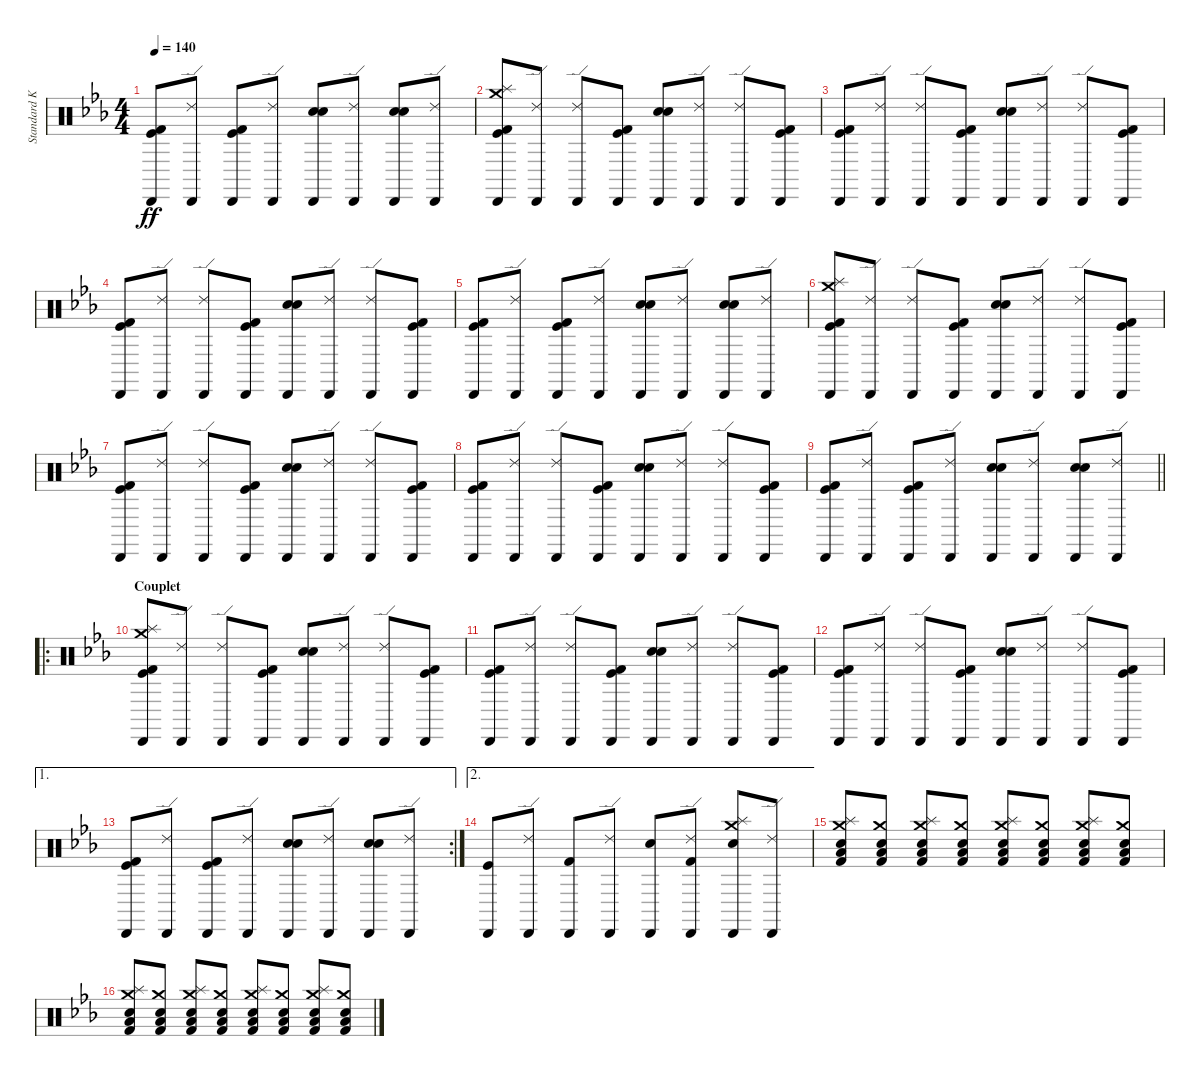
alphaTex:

\track ("Standard Kit" "Standard K") {instrument percussion}
\staff {score}
\articulation defaults
\ts (4 4)
\tempo 140
\clef neutral
\ks eb
("Kick (hit)" "Kick (hit) 2" "Cabasa (hit)").8{dy ff} ("Cabasa (hit)" "Ride (edge) 2").8 ("Kick (hit)" "Kick (hit) 2" "Cabasa (hit)").8 ("Cabasa (hit)" "Ride (edge) 2").8 ("Cabasa (hit)" "Electric Snare (hit)" "Snare (hit) 2").8 ("Cabasa (hit)" "Ride (edge) 2").8 ("Cabasa (hit)" "Electric Snare (hit)" "Snare (hit) 2").8 ("Cabasa (hit)" "Ride (edge) 2").8 |
("Kick (hit)" "Kick (hit) 2" "Cabasa (hit)" "Crash medium (hit)" "Splash (hit)").8 ("Cabasa (hit)" "Ride (edge) 2").8 ("Cabasa (hit)" "Ride (edge) 2").8 ("Kick (hit)" "Kick (hit) 2" "Cabasa (hit)").8 ("Cabasa (hit)" "Electric Snare (hit)" "Snare (hit) 2").8 ("Cabasa (hit)" "Ride (edge) 2").8 ("Cabasa (hit)" "Ride (edge) 2").8 ("Kick (hit)" "Kick (hit) 2" "Cabasa (hit)").8 |
("Kick (hit)" "Kick (hit) 2" "Cabasa (hit)").8 ("Cabasa (hit)" "Ride (edge) 2").8 ("Cabasa (hit)" "Ride (edge) 2").8 ("Kick (hit)" "Kick (hit) 2" "Cabasa (hit)").8 ("Cabasa (hit)" "Electric Snare (hit)" "Snare (hit) 2").8 ("Cabasa (hit)" "Ride (edge) 2").8 ("Cabasa (hit)" "Ride (edge) 2").8 ("Kick (hit)" "Kick (hit) 2" "Cabasa (hit)").8 |
("Kick (hit)" "Kick (hit) 2" "Cabasa (hit)").8 ("Cabasa (hit)" "Ride (edge) 2").8 ("Cabasa (hit)" "Ride (edge) 2").8 ("Kick (hit)" "Kick (hit) 2" "Cabasa (hit)").8 ("Cabasa (hit)" "Electric Snare (hit)" "Snare (hit) 2").8 ("Cabasa (hit)" "Ride (edge) 2").8 ("Cabasa (hit)" "Ride (edge) 2").8 ("Kick (hit)" "Kick (hit) 2" "Cabasa (hit)").8 |
("Kick (hit)" "Kick (hit) 2" "Cabasa (hit)").8 ("Cabasa (hit)" "Ride (edge) 2").8 ("Kick (hit)" "Kick (hit) 2" "Cabasa (hit)").8 ("Cabasa (hit)" "Ride (edge) 2").8 ("Cabasa (hit)" "Electric Snare (hit)" "Snare (hit) 2").8 ("Cabasa (hit)" "Ride (edge) 2").8 ("Cabasa (hit)" "Electric Snare (hit)" "Snare (hit) 2").8 ("Cabasa (hit)" "Ride (edge) 2").8 |
("Kick (hit)" "Kick (hit) 2" "Cabasa (hit)" "Crash medium (hit)" "Splash (hit)").8 ("Cabasa (hit)" "Ride (edge) 2").8 ("Cabasa (hit)" "Ride (edge) 2").8 ("Kick (hit)" "Kick (hit) 2" "Cabasa (hit)").8 ("Cabasa (hit)" "Electric Snare (hit)" "Snare (hit) 2").8 ("Cabasa (hit)" "Ride (edge) 2").8 ("Cabasa (hit)" "Ride (edge) 2").8 ("Kick (hit)" "Kick (hit) 2" "Cabasa (hit)").8 |
("Kick (hit)" "Kick (hit) 2" "Cabasa (hit)").8 ("Cabasa (hit)" "Ride (edge) 2").8 ("Cabasa (hit)" "Ride (edge) 2").8 ("Kick (hit)" "Kick (hit) 2" "Cabasa (hit)").8 ("Cabasa (hit)" "Electric Snare (hit)" "Snare (hit) 2").8 ("Cabasa (hit)" "Ride (edge) 2").8 ("Cabasa (hit)" "Ride (edge) 2").8 ("Kick (hit)" "Kick (hit) 2" "Cabasa (hit)").8 |
("Kick (hit)" "Kick (hit) 2" "Cabasa (hit)").8 ("Cabasa (hit)" "Ride (edge) 2").8 ("Cabasa (hit)" "Ride (edge) 2").8 ("Kick (hit)" "Kick (hit) 2" "Cabasa (hit)").8 ("Cabasa (hit)" "Electric Snare (hit)" "Snare (hit) 2").8 ("Cabasa (hit)" "Ride (edge) 2").8 ("Cabasa (hit)" "Ride (edge) 2").8 ("Kick (hit)" "Kick (hit) 2" "Cabasa (hit)").8 |
\barLineRight lightlight
("Kick (hit)" "Kick (hit) 2" "Cabasa (hit)").8 ("Cabasa (hit)" "Ride (edge) 2").8 ("Kick (hit)" "Kick (hit) 2" "Cabasa (hit)").8 ("Cabasa (hit)" "Ride (edge) 2").8 ("Cabasa (hit)" "Electric Snare (hit)" "Snare (hit) 2").8 ("Cabasa (hit)" "Ride (edge) 2").8 ("Cabasa (hit)" "Electric Snare (hit)" "Snare (hit) 2").8 ("Cabasa (hit)" "Ride (edge) 2").8 |
\ro
\section ("" "Couplet")
("Kick (hit)" "Kick (hit) 2" "Cabasa (hit)" "Crash medium (hit)" "Splash (hit)").8 ("Cabasa (hit)" "Ride (edge) 2").8 ("Cabasa (hit)" "Ride (edge) 2").8 ("Kick (hit)" "Kick (hit) 2" "Cabasa (hit)").8 ("Cabasa (hit)" "Electric Snare (hit)" "Snare (hit) 2").8 ("Cabasa (hit)" "Ride (edge) 2").8 ("Cabasa (hit)" "Ride (edge) 2").8 ("Kick (hit)" "Kick (hit) 2" "Cabasa (hit)").8 |
("Kick (hit)" "Kick (hit) 2" "Cabasa (hit)").8 ("Cabasa (hit)" "Ride (edge) 2").8 ("Cabasa (hit)" "Ride (edge) 2").8 ("Kick (hit)" "Kick (hit) 2" "Cabasa (hit)").8 ("Cabasa (hit)" "Electric Snare (hit)" "Snare (hit) 2").8 ("Cabasa (hit)" "Ride (edge) 2").8 ("Cabasa (hit)" "Ride (edge) 2").8 ("Kick (hit)" "Kick (hit) 2" "Cabasa (hit)").8 |
("Kick (hit)" "Kick (hit) 2" "Cabasa (hit)").8 ("Cabasa (hit)" "Ride (edge) 2").8 ("Cabasa (hit)" "Ride (edge) 2").8 ("Kick (hit)" "Kick (hit) 2" "Cabasa (hit)").8 ("Cabasa (hit)" "Electric Snare (hit)" "Snare (hit) 2").8 ("Cabasa (hit)" "Ride (edge) 2").8 ("Cabasa (hit)" "Ride (edge) 2").8 ("Kick (hit)" "Kick (hit) 2" "Cabasa (hit)").8 |
\ae 1
\rc 2
("Kick (hit)" "Kick (hit) 2" "Cabasa (hit)").8 ("Cabasa (hit)" "Ride (edge) 2").8 ("Kick (hit)" "Kick (hit) 2" "Cabasa (hit)").8 ("Cabasa (hit)" "Ride (edge) 2").8 ("Cabasa (hit)" "Electric Snare (hit)" "Snare (hit) 2").8 ("Cabasa (hit)" "Ride (edge) 2").8 ("Cabasa (hit)" "Electric Snare (hit)" "Snare (hit) 2").8 ("Cabasa (hit)" "Ride (edge) 2").8 |
\ae 2
("Kick (hit)" "Cabasa (hit)").8 ("Cabasa (hit)" "Ride (edge) 2").8 ("Kick (hit) 2" "Cabasa (hit)").8 ("Cabasa (hit)" "Ride (edge) 2").8 ("Cabasa (hit)" "Snare (hit) 2").8 ("Kick (hit) 2" "Cabasa (hit)" "Ride (edge) 2").8 ("Cabasa (hit)" "Snare (hit) 2" "Crash medium (hit)" "Splash (hit)").8 ("Cabasa (hit)" "Ride (edge) 2").8 |
("Kick (hit) 2" "Low Floor Tom (hit)" "Electric Snare (hit)" "Splash (hit)" "Crash medium (hit)").8 ("Kick (hit) 2" "Low Floor Tom (hit)" "Electric Snare (hit)" "Crash medium (hit)").8 ("Kick (hit) 2" "Low Floor Tom (hit)" "Electric Snare (hit)" "Splash (hit)" "Crash medium (hit)").8 ("Kick (hit) 2" "Low Floor Tom (hit)" "Electric Snare (hit)" "Crash medium (hit)").8 ("Kick (hit) 2" "Low Floor Tom (hit)" "Electric Snare (hit)" "Splash (hit)" "Crash medium (hit)").8 ("Kick (hit) 2" "Low Floor Tom (hit)" "Electric Snare (hit)" "Crash medium (hit)").8 ("Kick (hit) 2" "Low Floor Tom (hit)" "Electric Snare (hit)" "Splash (hit)" "Crash medium (hit)").8 ("Kick (hit) 2" "Low Floor Tom (hit)" "Electric Snare (hit)" "Crash medium (hit)").8 |
("Kick (hit) 2" "Low Floor Tom (hit)" "Electric Snare (hit)" "Splash (hit)" "Crash medium (hit)").8 ("Kick (hit) 2" "Low Floor Tom (hit)" "Electric Snare (hit)" "Crash medium (hit)").8 ("Kick (hit) 2" "Low Floor Tom (hit)" "Electric Snare (hit)" "Splash (hit)" "Crash medium (hit)").8 ("Kick (hit) 2" "Low Floor Tom (hit)" "Electric Snare (hit)" "Crash medium (hit)").8 ("Kick (hit) 2" "Low Floor Tom (hit)" "Electric Snare (hit)" "Splash (hit)" "Crash medium (hit)").8 ("Kick (hit) 2" "Low Floor Tom (hit)" "Electric Snare (hit)" "Crash medium (hit)").8 ("Kick (hit) 2" "Low Floor Tom (hit)" "Electric Snare (hit)" "Splash (hit)" "Crash medium (hit)").8 ("Kick (hit) 2" "Low Floor Tom (hit)" "Electric Snare (hit)" "Crash medium (hit)").8
